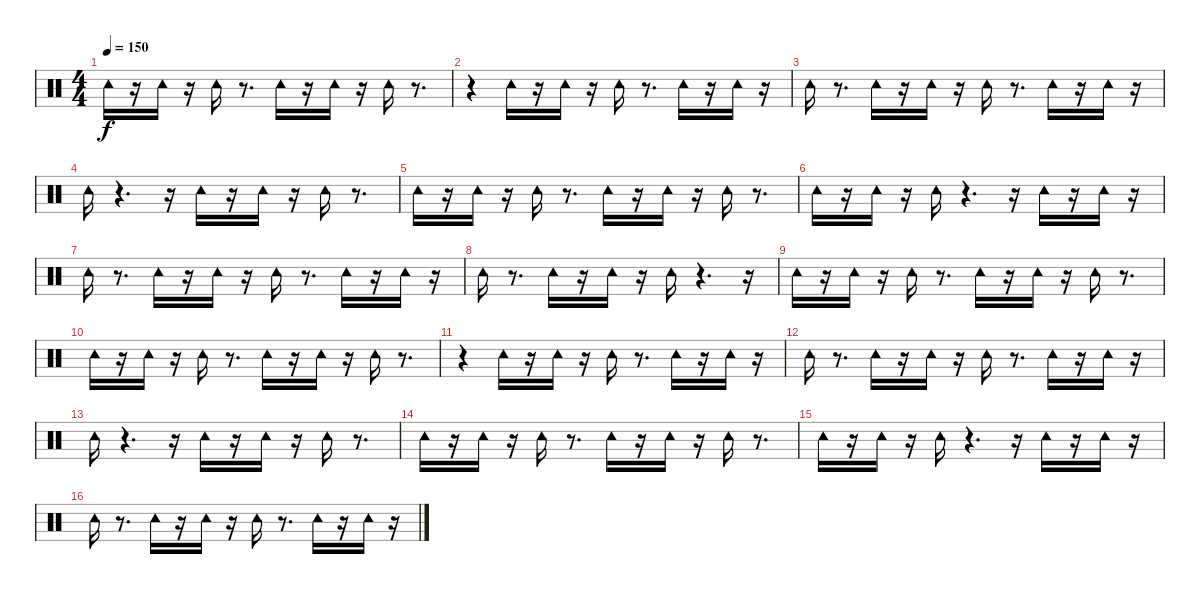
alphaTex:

\track "" {instrument percussion}
\staff {score}
\articulation defaults
\ts (4 4)
\tempo 150
\clef neutral
\ks c "Tambourine (hit)".16{dy f}
r.16 "Tambourine (hit)".16 r.16 "Tambourine (hit)".16 r.8{d} "Tambourine (hit)".16 r.16 "Tambourine (hit)".16 r.16 "Tambourine (hit)".16 r.8{d} |
r.4 "Tambourine (hit)".16 r.16 "Tambourine (hit)".16 r.16 "Tambourine (hit)".16 r.8{d} "Tambourine (hit)".16 r.16 "Tambourine (hit)".16 r.16 |
"Tambourine (hit)".16 r.8{d} "Tambourine (hit)".16 r.16 "Tambourine (hit)".16 r.16 "Tambourine (hit)".16 r.8{d} "Tambourine (hit)".16 r.16 "Tambourine (hit)".16 r.16 |
"Tambourine (hit)".16 r.4{d} r.16 "Tambourine (hit)".16 r.16 "Tambourine (hit)".16 r.16 "Tambourine (hit)".16 r.8{d} |
"Tambourine (hit)".16 r.16 "Tambourine (hit)".16 r.16 "Tambourine (hit)".16 r.8{d} "Tambourine (hit)".16 r.16 "Tambourine (hit)".16 r.16 "Tambourine (hit)".16 r.8{d} |
"Tambourine (hit)".16 r.16 "Tambourine (hit)".16 r.16 "Tambourine (hit)".16 r.4{d} r.16 "Tambourine (hit)".16 r.16 "Tambourine (hit)".16 r.16 |
"Tambourine (hit)".16 r.8{d} "Tambourine (hit)".16 r.16 "Tambourine (hit)".16 r.16 "Tambourine (hit)".16 r.8{d} "Tambourine (hit)".16 r.16 "Tambourine (hit)".16 r.16 |
"Tambourine (hit)".16 r.8{d} "Tambourine (hit)".16 r.16 "Tambourine (hit)".16 r.16 "Tambourine (hit)".16 r.4{d} r.16 |
"Tambourine (hit)".16 r.16 "Tambourine (hit)".16 r.16 "Tambourine (hit)".16 r.8{d} "Tambourine (hit)".16 r.16 "Tambourine (hit)".16 r.16 "Tambourine (hit)".16 r.8{d} |
"Tambourine (hit)".16 r.16 "Tambourine (hit)".16 r.16 "Tambourine (hit)".16 r.8{d} "Tambourine (hit)".16 r.16 "Tambourine (hit)".16 r.16 "Tambourine (hit)".16 r.8{d} |
r.4 "Tambourine (hit)".16 r.16 "Tambourine (hit)".16 r.16 "Tambourine (hit)".16 r.8{d} "Tambourine (hit)".16 r.16 "Tambourine (hit)".16 r.16 |
"Tambourine (hit)".16 r.8{d} "Tambourine (hit)".16 r.16 "Tambourine (hit)".16 r.16 "Tambourine (hit)".16 r.8{d} "Tambourine (hit)".16 r.16 "Tambourine (hit)".16 r.16 |
"Tambourine (hit)".16 r.4{d} r.16 "Tambourine (hit)".16 r.16 "Tambourine (hit)".16 r.16 "Tambourine (hit)".16 r.8{d} |
"Tambourine (hit)".16 r.16 "Tambourine (hit)".16 r.16 "Tambourine (hit)".16 r.8{d} "Tambourine (hit)".16 r.16 "Tambourine (hit)".16 r.16 "Tambourine (hit)".16 r.8{d} |
"Tambourine (hit)".16 r.16 "Tambourine (hit)".16 r.16 "Tambourine (hit)".16 r.4{d} r.16 "Tambourine (hit)".16 r.16 "Tambourine (hit)".16 r.16 |
"Tambourine (hit)".16 r.8{d} "Tambourine (hit)".16 r.16 "Tambourine (hit)".16 r.16 "Tambourine (hit)".16 r.8{d} "Tambourine (hit)".16 r.16 "Tambourine (hit)".16 r.16
